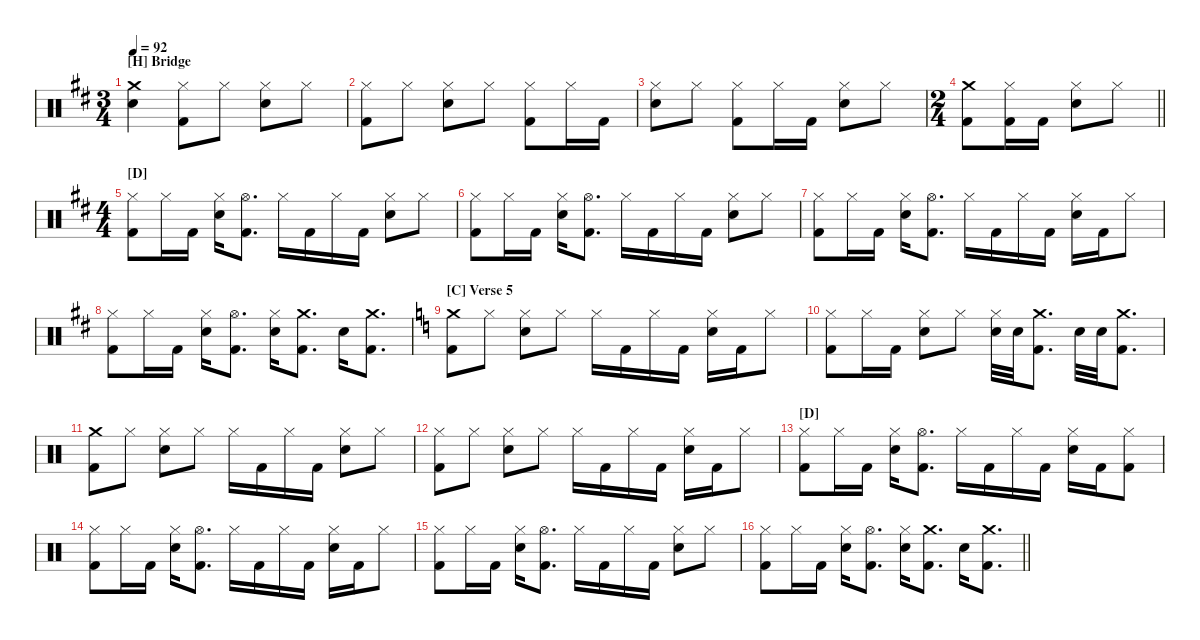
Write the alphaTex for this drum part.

\hideDynamics
\bracketExtendMode nobrackets
\singleTrackTrackNamePolicy hidden
\multiTrackTrackNamePolicy hidden
\firstSystemTrackNameMode fullname
\firstSystemTrackNameOrientation horizontal
\otherSystemsTrackNameOrientation horizontal
\track ("Drumkit" "Drums") {instrument percussion}
\staff {score}
\articulation defaults
\ts (3 4)
\section ("H" "Bridge")
\tempo 92
\clef neutral
\ks d
("Crash medium (hit)"{acc forcenatural} "Snare (hit) 2"{acc forcenatural}).4{dy f beam Down} ("Hi-Hat (closed)"{acc forcenatural} "Kick (hit) 2"{acc forcenatural}).8{beam Down} "Hi-Hat (closed)"{acc forcenatural}.8{beam Down} ("Hi-Hat (closed)"{acc forcenatural} "Snare (hit) 2"{acc forcenatural}).8{beam Down} "Hi-Hat (closed)"{acc forcenatural}.8{beam Down} |
("Hi-Hat (closed)"{acc forcenatural} "Kick (hit) 2"{acc forcenatural}).8{beam Down} "Hi-Hat (closed)"{acc forcenatural}.8{beam Down} ("Hi-Hat (closed)"{acc forcenatural} "Snare (hit) 2"{acc forcenatural}).8{beam Down} "Hi-Hat (closed)"{acc forcenatural}.8{beam Down} ("Hi-Hat (closed)"{acc forcenatural} "Kick (hit) 2"{acc forcenatural}).8{beam Down} "Hi-Hat (closed)"{acc forcenatural}.16{beam Down} "Kick (hit) 2"{acc forcenatural}.16{beam Down} |
("Hi-Hat (closed)"{acc forcenatural} "Snare (hit) 2"{acc forcenatural}).8{beam Down} "Hi-Hat (closed)"{acc forcenatural}.8{beam Down} ("Hi-Hat (closed)"{acc forcenatural} "Kick (hit) 2"{acc forcenatural}).8{beam Down} "Hi-Hat (closed)"{acc forcenatural}.16{beam Down} "Kick (hit) 2"{acc forcenatural}.16{beam Down} ("Hi-Hat (closed)"{acc forcenatural} "Snare (hit) 2"{acc forcenatural}).8{beam Down} "Hi-Hat (closed)"{acc forcenatural}.8{beam Down} |
\ts (2 4)
\barLineRight lightlight
("Crash medium (hit)"{acc forcenatural} "Kick (hit) 2"{acc forcenatural}).8{beam Down} ("Hi-Hat (closed)"{acc forcenatural} "Kick (hit) 2"{acc forcenatural}).16{beam Down} "Kick (hit) 2"{acc forcenatural}.16{beam Down} ("Hi-Hat (closed)"{acc forcenatural} "Snare (hit) 2"{acc forcenatural}).8{beam Down} "Hi-Hat (closed)"{acc forcenatural}.8{beam Down} |
\ts (4 4)
\section ("D" "")
("Hi-Hat (closed)"{acc forcenatural} "Kick (hit) 2"{acc forcenatural}).8{beam Down} "Hi-Hat (closed)"{acc forcenatural}.16{beam Down} "Kick (hit) 2"{acc forcenatural}.16{beam Down} ("Hi-Hat (closed)"{acc forcenatural} "Snare (hit) 2"{acc forcenatural}).16{beam Down} ("Hi-Hat (open)"{acc forcenatural} "Kick (hit) 2"{acc forcenatural}).8{d beam Down} "Hi-Hat (closed)"{acc forcenatural}.16{beam Down} "Kick (hit) 2"{acc forcenatural}.16{beam Down} "Hi-Hat (closed)"{acc forcenatural}.16{beam Down} "Kick (hit) 2"{acc forcenatural}.16{beam Down} ("Hi-Hat (closed)"{acc forcenatural} "Snare (hit) 2"{acc forcenatural}).8{beam Down} "Hi-Hat (closed)"{acc forcenatural}.8{beam Down} |
("Hi-Hat (closed)"{acc forcenatural} "Kick (hit) 2"{acc forcenatural}).8{beam Down} "Hi-Hat (closed)"{acc forcenatural}.16{beam Down} "Kick (hit) 2"{acc forcenatural}.16{beam Down} ("Hi-Hat (closed)"{acc forcenatural} "Snare (hit) 2"{acc forcenatural}).16{beam Down} ("Hi-Hat (open)"{acc forcenatural} "Kick (hit) 2"{acc forcenatural}).8{d beam Down} "Hi-Hat (closed)"{acc forcenatural}.16{beam Down} "Kick (hit) 2"{acc forcenatural}.16{beam Down} "Hi-Hat (closed)"{acc forcenatural}.16{beam Down} "Kick (hit) 2"{acc forcenatural}.16{beam Down} ("Hi-Hat (closed)"{acc forcenatural} "Snare (hit) 2"{acc forcenatural}).8{beam Down} "Hi-Hat (closed)"{acc forcenatural}.8{beam Down} |
("Hi-Hat (closed)"{acc forcenatural} "Kick (hit) 2"{acc forcenatural}).8{beam Down} "Hi-Hat (closed)"{acc forcenatural}.16{beam Down} "Kick (hit) 2"{acc forcenatural}.16{beam Down} ("Hi-Hat (closed)"{acc forcenatural} "Snare (hit) 2"{acc forcenatural}).16{beam Down} ("Hi-Hat (open)"{acc forcenatural} "Kick (hit) 2"{acc forcenatural}).8{d beam Down} "Hi-Hat (closed)"{acc forcenatural}.16{beam Down} "Kick (hit) 2"{acc forcenatural}.16{beam Down} "Hi-Hat (closed)"{acc forcenatural}.16{beam Down} "Kick (hit) 2"{acc forcenatural}.16{beam Down} ("Hi-Hat (closed)"{acc forcenatural} "Snare (hit) 2"{acc forcenatural}).16{beam Down} "Kick (hit) 2"{acc forcenatural}.16{beam Down} "Hi-Hat (closed)"{acc forcenatural}.8{beam Down} |
("Hi-Hat (closed)"{acc forcenatural} "Kick (hit) 2"{acc forcenatural}).8{beam Down} "Hi-Hat (closed)"{acc forcenatural}.16{beam Down} "Kick (hit) 2"{acc forcenatural}.16{beam Down} ("Hi-Hat (closed)"{acc forcenatural} "Snare (hit) 2"{acc forcenatural}).16{beam Down} ("Hi-Hat (open)"{acc forcenatural} "Kick (hit) 2"{acc forcenatural}).8{d beam Down} ("Hi-Hat (closed)"{acc forcenatural} "Snare (hit) 2"{acc forcenatural}).16{beam Down} ("Crash medium (hit)"{acc forcenatural} "Kick (hit) 2"{acc forcenatural}).8{d beam Down} "Snare (hit) 2"{acc forcenatural}.16{beam Down} ("Crash medium (hit)"{acc forcenatural} "Kick (hit) 2"{acc forcenatural}).8{d beam Down} |
\section ("C" "Verse 5")
\ks c
("Crash medium (hit)" "Kick (hit) 2").8{beam Down} "Hi-Hat (closed)".8{beam Down} ("Hi-Hat (closed)" "Snare (hit) 2").8{beam Down} "Hi-Hat (closed)".8{beam Down} "Hi-Hat (closed)".16{beam Down} "Kick (hit) 2".16{beam Down} "Hi-Hat (closed)".16{beam Down} "Kick (hit) 2".16{beam Down} ("Hi-Hat (closed)" "Snare (hit) 2").16{beam Down} "Kick (hit) 2".16{beam Down} "Hi-Hat (closed)".8{beam Down} |
("Hi-Hat (closed)" "Kick (hit) 2").8{beam Down} "Hi-Hat (closed)".16{beam Down} "Kick (hit) 2".16{beam Down} ("Hi-Hat (closed)" "Snare (hit) 2").8{beam Down} "Hi-Hat (closed)".8{beam Down} ("Hi-Hat (closed)" "Snare (hit) 2").32{beam Down} "Snare (hit) 2".32{beam Down} ("Crash medium (hit)" "Kick (hit) 2").8{d beam Down} "Snare (hit) 2".32{beam Down} "Snare (hit) 2".32{beam Down} ("Crash medium (hit)" "Kick (hit) 2").8{d beam Down} |
("Crash medium (hit)" "Kick (hit) 2").8{beam Down} "Hi-Hat (closed)".8{beam Down} ("Hi-Hat (closed)" "Snare (hit) 2").8{beam Down} "Hi-Hat (closed)".8{beam Down} "Hi-Hat (closed)".16{beam Down} "Kick (hit) 2".16{beam Down} "Hi-Hat (closed)".16{beam Down} "Kick (hit) 2".16{beam Down} ("Hi-Hat (closed)" "Snare (hit) 2").8{beam Down} "Hi-Hat (closed)".8{beam Down} |
("Hi-Hat (closed)" "Kick (hit) 2").8{beam Down} "Hi-Hat (closed)".8{beam Down} ("Hi-Hat (closed)" "Snare (hit) 2").8{beam Down} "Hi-Hat (closed)".8{beam Down} "Hi-Hat (closed)".16{beam Down} "Kick (hit) 2".16{beam Down} "Hi-Hat (closed)".16{beam Down} "Kick (hit) 2".16{beam Down} ("Hi-Hat (closed)" "Snare (hit) 2").16{beam Down} "Kick (hit) 2".16{beam Down} "Hi-Hat (closed)".8{beam Down} |
\section ("D" "")
("Hi-Hat (closed)" "Kick (hit) 2").8{beam Down} "Hi-Hat (closed)".16{beam Down} "Kick (hit) 2".16{beam Down} ("Hi-Hat (closed)" "Snare (hit) 2").16{beam Down} ("Hi-Hat (open)" "Kick (hit) 2").8{d beam Down} "Hi-Hat (closed)".16{beam Down} "Kick (hit) 2".16{beam Down} "Hi-Hat (closed)".16{beam Down} "Kick (hit) 2".16{beam Down} ("Hi-Hat (closed)" "Snare (hit) 2").16{beam Down} "Kick (hit) 2".16{beam Down} ("Hi-Hat (closed)" "Kick (hit) 2").8{beam Down} |
("Hi-Hat (closed)" "Kick (hit) 2").8{beam Down} "Hi-Hat (closed)".16{beam Down} "Kick (hit) 2".16{beam Down} ("Hi-Hat (closed)" "Snare (hit) 2").16{beam Down} ("Hi-Hat (open)" "Kick (hit) 2").8{d beam Down} "Hi-Hat (closed)".16{beam Down} "Kick (hit) 2".16{beam Down} "Hi-Hat (closed)".16{beam Down} "Kick (hit) 2".16{beam Down} ("Hi-Hat (closed)" "Snare (hit) 2").16{beam Down} "Kick (hit) 2".16{beam Down} "Hi-Hat (closed)".8{beam Down} |
("Hi-Hat (closed)" "Kick (hit) 2").8{beam Down} "Hi-Hat (closed)".16{beam Down} "Kick (hit) 2".16{beam Down} ("Hi-Hat (closed)" "Snare (hit) 2").16{beam Down} ("Hi-Hat (open)" "Kick (hit) 2").8{d beam Down} "Hi-Hat (closed)".16{beam Down} "Kick (hit) 2".16{beam Down} "Hi-Hat (closed)".16{beam Down} "Kick (hit) 2".16{beam Down} ("Hi-Hat (closed)" "Snare (hit) 2").8{beam Down} "Hi-Hat (closed)".8{beam Down} |
\barLineRight lightlight
("Hi-Hat (closed)" "Kick (hit) 2").8{beam Down} "Hi-Hat (closed)".16{beam Down} "Kick (hit) 2".16{beam Down} ("Hi-Hat (closed)" "Snare (hit) 2").16{beam Down} ("Hi-Hat (open)" "Kick (hit) 2").8{d beam Down} ("Hi-Hat (closed)" "Snare (hit) 2").16{beam Down} ("Crash medium (hit)" "Kick (hit) 2").8{d beam Down} "Snare (hit) 2".16{beam Down} ("Crash medium (hit)" "Kick (hit) 2").8{d beam Down}
